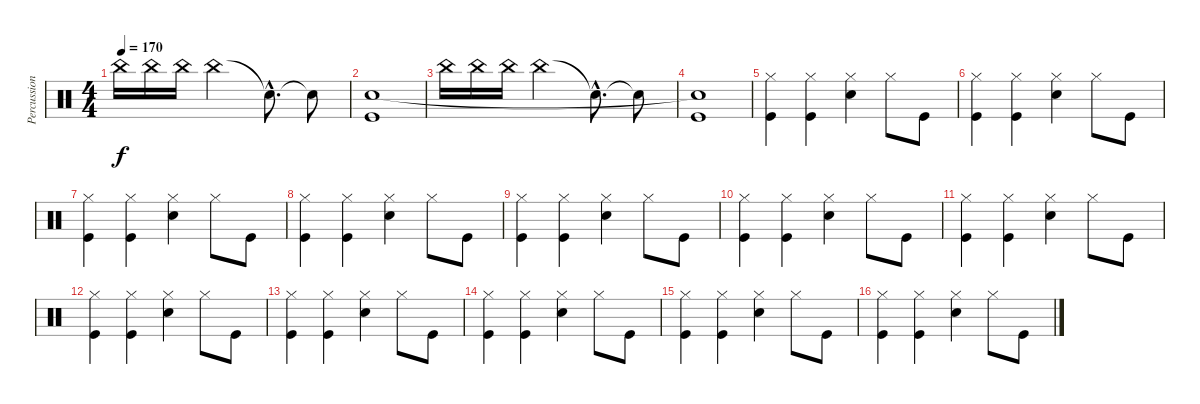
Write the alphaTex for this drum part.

\track ("Percussion" "Percussion") {instrument percussion}
\staff {score}
\articulation defaults
\ts (4 4)
\tempo 170
\clef neutral
\ks c "China (hit)".16{dy f} "China (hit)".16 "China (hit)".16 "China (hit)".2 "Snare (hit)"{hac t}.8{d} "Snare (hit)"{t}.8
|
("Kick (hit)" "Snare (hit)"{t}).1 |
"China (hit)".16 "China (hit)".16 "China (hit)".16 "China (hit)".2 "Snare (hit)"{hac t}.8{d} "Snare (hit)"{t}.8 |
("Kick (hit)" "Snare (hit)"{t}).1 |
("Hi-Hat (closed)" "Kick (hit)").4 ("Hi-Hat (closed)" "Kick (hit)").4 ("Hi-Hat (closed)" "Snare (hit) 2").4 "Hi-Hat (closed)".8 "Kick (hit)".8 |
("Hi-Hat (closed)" "Kick (hit)").4 ("Hi-Hat (closed)" "Kick (hit)").4 ("Hi-Hat (closed)" "Snare (hit) 2").4 "Hi-Hat (closed)".8 "Kick (hit)".8 |
("Hi-Hat (closed)" "Kick (hit)").4 ("Hi-Hat (closed)" "Kick (hit)").4 ("Hi-Hat (closed)" "Snare (hit) 2").4 "Hi-Hat (closed)".8 "Kick (hit)".8 |
("Hi-Hat (closed)" "Kick (hit)").4 ("Hi-Hat (closed)" "Kick (hit)").4 ("Hi-Hat (closed)" "Snare (hit) 2").4 "Hi-Hat (closed)".8 "Kick (hit)".8 |
("Hi-Hat (closed)" "Kick (hit)").4 ("Hi-Hat (closed)" "Kick (hit)").4 ("Hi-Hat (closed)" "Snare (hit) 2").4 "Hi-Hat (closed)".8 "Kick (hit)".8 |
("Hi-Hat (closed)" "Kick (hit)").4 ("Hi-Hat (closed)" "Kick (hit)").4 ("Hi-Hat (closed)" "Snare (hit) 2").4 "Hi-Hat (closed)".8 "Kick (hit)".8 |
("Hi-Hat (closed)" "Kick (hit)").4 ("Hi-Hat (closed)" "Kick (hit)").4 ("Hi-Hat (closed)" "Snare (hit) 2").4 "Hi-Hat (closed)".8 "Kick (hit)".8 |
("Hi-Hat (closed)" "Kick (hit)").4 ("Hi-Hat (closed)" "Kick (hit)").4 ("Hi-Hat (closed)" "Snare (hit) 2").4 "Hi-Hat (closed)".8 "Kick (hit)".8 |
("Hi-Hat (closed)" "Kick (hit)").4 ("Hi-Hat (closed)" "Kick (hit)").4 ("Hi-Hat (closed)" "Snare (hit) 2").4 "Hi-Hat (closed)".8 "Kick (hit)".8 |
("Hi-Hat (closed)" "Kick (hit)").4 ("Hi-Hat (closed)" "Kick (hit)").4 ("Hi-Hat (closed)" "Snare (hit) 2").4 "Hi-Hat (closed)".8 "Kick (hit)".8 |
("Hi-Hat (closed)" "Kick (hit)").4 ("Hi-Hat (closed)" "Kick (hit)").4 ("Hi-Hat (closed)" "Snare (hit) 2").4 "Hi-Hat (closed)".8 "Kick (hit)".8 |
("Hi-Hat (closed)" "Kick (hit)").4 ("Hi-Hat (closed)" "Kick (hit)").4 ("Hi-Hat (closed)" "Snare (hit) 2").4 "Hi-Hat (closed)".8 "Kick (hit)".8
